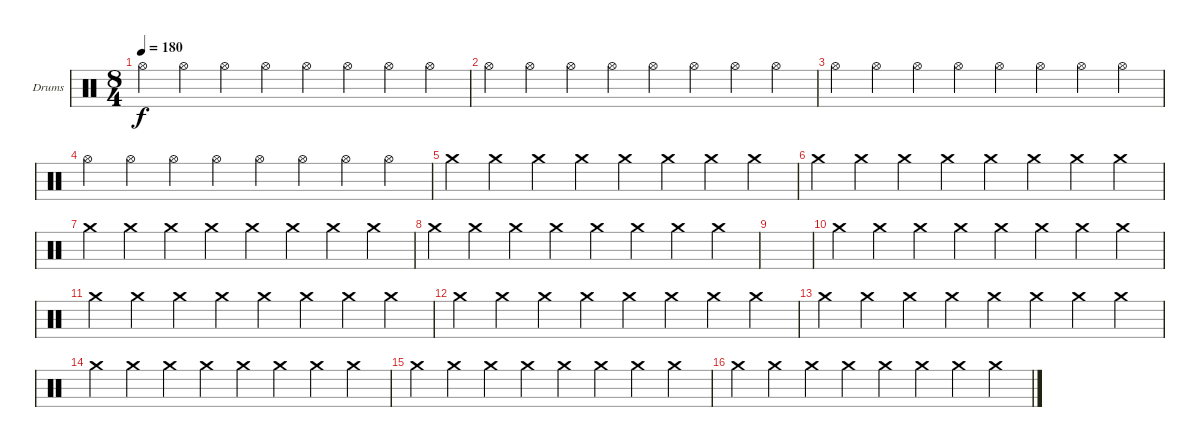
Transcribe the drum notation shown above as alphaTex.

\defaultSystemsLayout 4
\bracketExtendMode groupsimilarinstruments
\firstSystemTrackNameOrientation horizontal
\otherSystemsTrackNameOrientation horizontal
\track ("Drumkit" "Drums") {instrument percussion}
\staff {score}
\articulation defaults
\ts (8 4)
\tempo 180
\clef neutral
\ks c "Hi-Hat (open)".4{dy f} "Hi-Hat (open)".4 "Hi-Hat (open)".4 "Hi-Hat (open)".4 "Hi-Hat (open)".4 "Hi-Hat (open)".4 "Hi-Hat (open)".4 "Hi-Hat (open)".4
|
"Hi-Hat (open)".4 "Hi-Hat (open)".4 "Hi-Hat (open)".4 "Hi-Hat (open)".4 "Hi-Hat (open)".4 "Hi-Hat (open)".4 "Hi-Hat (open)".4 "Hi-Hat (open)".4 |
"Hi-Hat (open)".4 "Hi-Hat (open)".4 "Hi-Hat (open)".4 "Hi-Hat (open)".4 "Hi-Hat (open)".4 "Hi-Hat (open)".4 "Hi-Hat (open)".4 "Hi-Hat (open)".4 |
"Hi-Hat (open)".4 "Hi-Hat (open)".4 "Hi-Hat (open)".4 "Hi-Hat (open)".4 "Hi-Hat (open)".4 "Hi-Hat (open)".4 "Hi-Hat (open)".4 "Hi-Hat (open)".4 |
"Crash medium (hit)".4 "Crash medium (hit)".4 "Crash medium (hit)".4 "Crash medium (hit)".4 "Crash medium (hit)".4 "Crash medium (hit)".4 "Crash medium (hit)".4 "Crash medium (hit)".4 |
"Crash medium (hit)".4 "Crash medium (hit)".4 "Crash medium (hit)".4 "Crash medium (hit)".4 "Crash medium (hit)".4 "Crash medium (hit)".4 "Crash medium (hit)".4 "Crash medium (hit)".4 |
"Crash medium (hit)".4 "Crash medium (hit)".4 "Crash medium (hit)".4 "Crash medium (hit)".4 "Crash medium (hit)".4 "Crash medium (hit)".4 "Crash medium (hit)".4 "Crash medium (hit)".4 |
"Crash medium (hit)".4 "Crash medium (hit)".4 "Crash medium (hit)".4 "Crash medium (hit)".4 "Crash medium (hit)".4 "Crash medium (hit)".4 "Crash medium (hit)".4 "Crash medium (hit)".4 |
|
"Crash medium (hit)".4 "Crash medium (hit)".4 "Crash medium (hit)".4 "Crash medium (hit)".4 "Crash medium (hit)".4 "Crash medium (hit)".4 "Crash medium (hit)".4 "Crash medium (hit)".4 |
"Crash medium (hit)".4 "Crash medium (hit)".4 "Crash medium (hit)".4 "Crash medium (hit)".4 "Crash medium (hit)".4 "Crash medium (hit)".4 "Crash medium (hit)".4 "Crash medium (hit)".4 |
"Crash medium (hit)".4 "Crash medium (hit)".4 "Crash medium (hit)".4 "Crash medium (hit)".4 "Crash medium (hit)".4 "Crash medium (hit)".4 "Crash medium (hit)".4 "Crash medium (hit)".4 |
"Crash medium (hit)".4 "Crash medium (hit)".4 "Crash medium (hit)".4 "Crash medium (hit)".4 "Crash medium (hit)".4 "Crash medium (hit)".4 "Crash medium (hit)".4 "Crash medium (hit)".4 |
"Crash medium (hit)".4 "Crash medium (hit)".4 "Crash medium (hit)".4 "Crash medium (hit)".4 "Crash medium (hit)".4 "Crash medium (hit)".4 "Crash medium (hit)".4 "Crash medium (hit)".4 |
"Crash medium (hit)".4 "Crash medium (hit)".4 "Crash medium (hit)".4 "Crash medium (hit)".4 "Crash medium (hit)".4 "Crash medium (hit)".4 "Crash medium (hit)".4 "Crash medium (hit)".4 |
"Crash medium (hit)".4 "Crash medium (hit)".4 "Crash medium (hit)".4 "Crash medium (hit)".4 "Crash medium (hit)".4 "Crash medium (hit)".4 "Crash medium (hit)".4 "Crash medium (hit)".4
